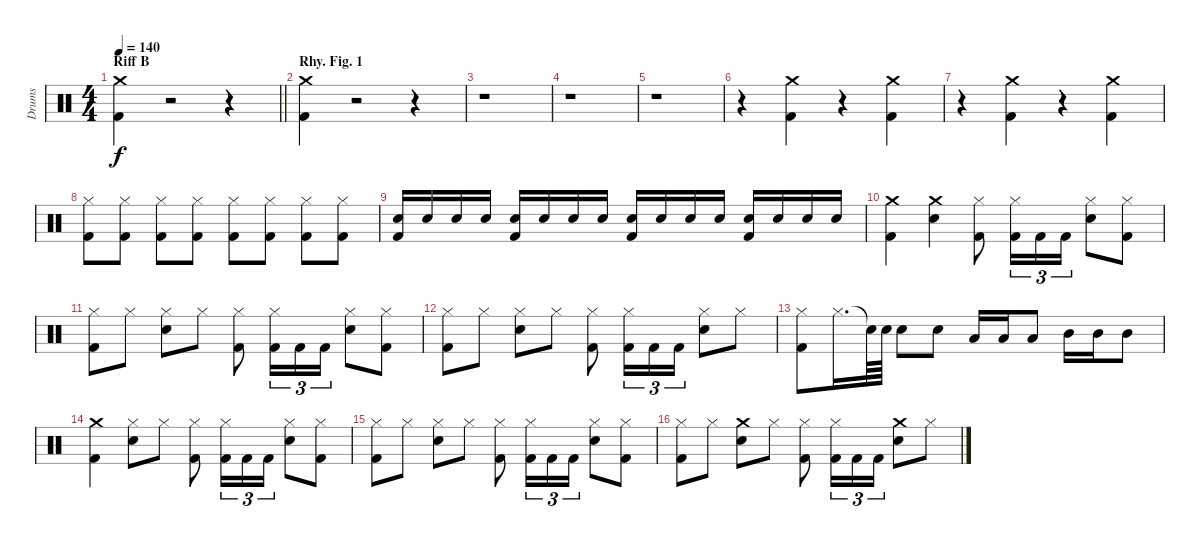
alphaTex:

\track ("Drums" "Drums") {instrument percussion}
\staff {score}
\articulation defaults
\ts (4 4)
\section ("" "Riff B")
\tempo 140
\clef neutral
\barLineRight lightlight
\ks c
("Kick (hit) 2" "Crash medium (hit)").4{dy f} r.2 r.4 |
\section ("" "Rhy. Fig. 1")
("Kick (hit) 2" "Crash medium (hit)").4 r.2 r.4 |
r.1 |
r.1 |
r.1 |
r.4 ("Kick (hit) 2" "Crash medium (hit)").4 r.4 ("Kick (hit) 2" "Crash medium (hit)").4 |
r.4 ("Kick (hit) 2" "Crash medium (hit)").4 r.4 ("Crash medium (hit)" "Kick (hit) 2").4 |
("Kick (hit) 2" "Hi-Hat (closed)").8 ("Kick (hit) 2" "Hi-Hat (closed)").8 ("Kick (hit) 2" "Hi-Hat (closed)").8 ("Kick (hit) 2" "Hi-Hat (closed)").8 ("Kick (hit) 2" "Hi-Hat (closed)").8 ("Kick (hit) 2" "Hi-Hat (closed)").8 ("Kick (hit) 2" "Hi-Hat (closed)").8 ("Kick (hit) 2" "Hi-Hat (closed)").8 |
("Kick (hit) 2" "Snare (hit) 2").16 "Snare (hit) 2".16 "Snare (hit) 2".16 "Snare (hit) 2".16 ("Kick (hit) 2" "Snare (hit) 2").16 "Snare (hit) 2".16 "Snare (hit) 2".16 "Snare (hit) 2".16 ("Kick (hit) 2" "Snare (hit) 2").16 "Snare (hit) 2".16 "Snare (hit) 2".16 "Snare (hit) 2".16 ("Kick (hit) 2" "Snare (hit) 2").16 "Snare (hit) 2".16 "Snare (hit) 2".16 "Snare (hit) 2".16 |
("Kick (hit) 2" "Crash medium (hit)").4 ("Snare (hit) 2" "Crash medium (hit)").4 ("Kick (hit) 2" "Hi-Hat (closed)").8 ("Kick (hit) 2" "Hi-Hat (closed)").16{tu (3 2)} "Kick (hit) 2".16{tu (3 2)} "Kick (hit) 2".16{tu (3 2)} ("Snare (hit) 2" "Hi-Hat (closed)").8 ("Kick (hit) 2" "Hi-Hat (closed)").8 |
("Hi-Hat (closed)" "Kick (hit) 2").8 "Hi-Hat (closed)".8 ("Snare (hit) 2" "Hi-Hat (closed)").8 "Hi-Hat (closed)".8 ("Kick (hit) 2" "Hi-Hat (closed)").8 ("Kick (hit) 2" "Hi-Hat (closed)").16{tu (3 2)} "Kick (hit) 2".16{tu (3 2)} "Kick (hit) 2".16{tu (3 2)} ("Snare (hit) 2" "Hi-Hat (closed)").8 ("Kick (hit) 2" "Hi-Hat (closed)").8 |
("Hi-Hat (closed)" "Kick (hit) 2").8 "Hi-Hat (closed)".8 ("Snare (hit) 2" "Hi-Hat (closed)").8 "Hi-Hat (closed)".8 ("Kick (hit) 2" "Hi-Hat (closed)").8 ("Kick (hit) 2" "Hi-Hat (closed)").16{tu (3 2)} "Kick (hit) 2".16{tu (3 2)} "Kick (hit) 2".16{tu (3 2)} ("Snare (hit) 2" "Hi-Hat (closed)").8 "Hi-Hat (closed)".8 |
("Kick (hit) 2" "Hi-Hat (closed)").8 "Hi-Hat (closed)".16{d} "Snare (hit)"{t}.64 "Snare (hit) 2".64 "Snare (hit) 2".8 "Snare (hit) 2".8 "Low Tom (hit)".16 "Low Tom (hit)".16 "Low Tom (hit)".8 "Mid Tom (hit)".16 "Mid Tom (hit)".16 "Mid Tom (hit)".8 |
("Kick (hit) 2" "Crash medium (hit)").4 ("Hi-Hat (closed)" "Snare (hit) 2").8 "Hi-Hat (closed)".8 ("Kick (hit) 2" "Hi-Hat (closed)").8 ("Kick (hit) 2" "Hi-Hat (closed)").16{tu (3 2)} "Kick (hit) 2".16{tu (3 2)} "Kick (hit) 2".16{tu (3 2)} ("Snare (hit) 2" "Hi-Hat (closed)").8 ("Kick (hit) 2" "Hi-Hat (closed)").8 |
("Hi-Hat (closed)" "Kick (hit) 2").8 "Hi-Hat (closed)".8 ("Snare (hit) 2" "Hi-Hat (closed)").8 "Hi-Hat (closed)".8 ("Kick (hit) 2" "Hi-Hat (closed)").8 ("Kick (hit) 2" "Hi-Hat (closed)").16{tu (3 2)} "Kick (hit) 2".16{tu (3 2)} "Kick (hit) 2".16{tu (3 2)} ("Snare (hit) 2" "Hi-Hat (closed)").8 ("Kick (hit) 2" "Hi-Hat (closed)").8 |
("Kick (hit) 2" "Hi-Hat (closed)").8 "Hi-Hat (closed)".8 ("Snare (hit) 2" "Crash medium (hit)").8 "Hi-Hat (closed)".8 ("Kick (hit) 2" "Hi-Hat (closed)").8 ("Kick (hit) 2" "Hi-Hat (closed)").16{tu (3 2)} "Kick (hit) 2".16{tu (3 2)} "Kick (hit) 2".16{tu (3 2)} ("Crash medium (hit)" "Snare (hit) 2").8 "Hi-Hat (closed)".8
